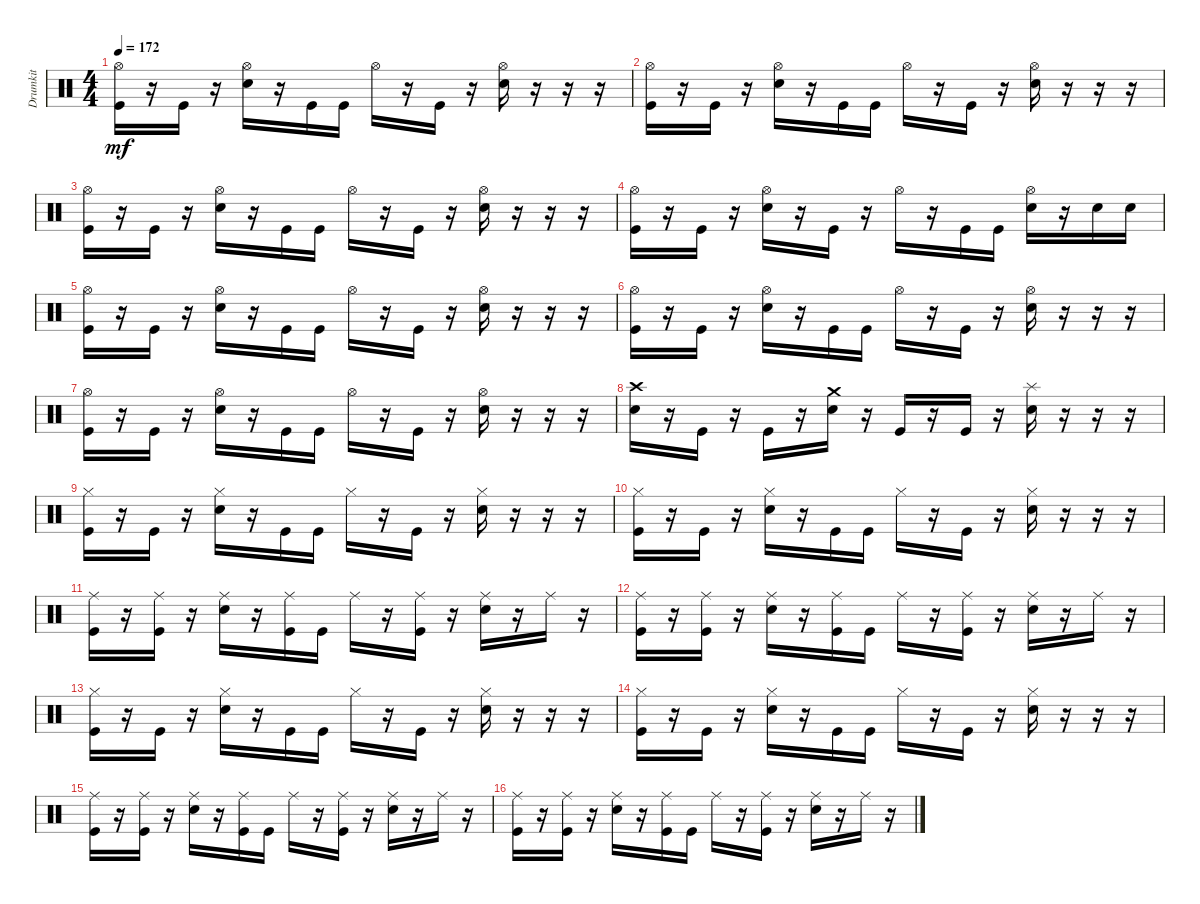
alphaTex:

\track ("Drumkit" "Drumkit") {instrument percussion}
\staff {score}
\articulation defaults
\ts (4 4)
\tempo 172
\clef neutral
\ks c
("Hi-Hat (open)" "Kick (hit)").16{dy mf} r.16 "Kick (hit)".16 r.16 ("Hi-Hat (open)" "Snare (hit) 2").16 r.16 "Kick (hit)".16 "Kick (hit)".16 "Hi-Hat (open)".16 r.16 "Kick (hit)".16 r.16 ("Hi-Hat (open)" "Snare (hit) 2").16 r.16 r.16 r.16 |
("Hi-Hat (open)" "Kick (hit)").16 r.16 "Kick (hit)".16 r.16 ("Hi-Hat (open)" "Snare (hit) 2").16 r.16 "Kick (hit)".16 "Kick (hit)".16 "Hi-Hat (open)".16 r.16 "Kick (hit)".16 r.16 ("Hi-Hat (open)" "Snare (hit) 2").16 r.16 r.16 r.16 |
("Hi-Hat (open)" "Kick (hit)").16 r.16 "Kick (hit)".16 r.16 ("Hi-Hat (open)" "Snare (hit) 2").16 r.16 "Kick (hit)".16 "Kick (hit)".16 "Hi-Hat (open)".16 r.16 "Kick (hit)".16 r.16 ("Hi-Hat (open)" "Snare (hit) 2").16 r.16 r.16 r.16 |
("Hi-Hat (open)" "Kick (hit)").16 r.16 "Kick (hit)".16 r.16 ("Hi-Hat (open)" "Snare (hit) 2").16 r.16 "Kick (hit)".16 r.16 "Hi-Hat (open)".16 r.16 "Kick (hit)".16 "Kick (hit)".16 ("Hi-Hat (open)" "Snare (hit) 2").16 r.16 "Snare (hit) 2".16 "Snare (hit) 2".16 |
("Hi-Hat (open)" "Kick (hit)").16 r.16 "Kick (hit)".16 r.16 ("Hi-Hat (open)" "Snare (hit) 2").16 r.16 "Kick (hit)".16 "Kick (hit)".16 "Hi-Hat (open)".16 r.16 "Kick (hit)".16 r.16 ("Hi-Hat (open)" "Snare (hit) 2").16 r.16 r.16 r.16 |
("Hi-Hat (open)" "Kick (hit)").16 r.16 "Kick (hit)".16 r.16 ("Hi-Hat (open)" "Snare (hit) 2").16 r.16 "Kick (hit)".16 "Kick (hit)".16 "Hi-Hat (open)".16 r.16 "Kick (hit)".16 r.16 ("Hi-Hat (open)" "Snare (hit) 2").16 r.16 r.16 r.16 |
("Hi-Hat (open)" "Kick (hit)").16 r.16 "Kick (hit)".16 r.16 ("Hi-Hat (open)" "Snare (hit) 2").16 r.16 "Kick (hit)".16 "Kick (hit)".16 "Hi-Hat (open)".16 r.16 "Kick (hit)".16 r.16 ("Hi-Hat (open)" "Snare (hit) 2").16 r.16 r.16 r.16 |
("Crash high (hit)" "Snare (hit) 2").16 r.16 "Kick (hit)".16 r.16 "Kick (hit)".16 r.16 ("Crash medium (hit)" "Snare (hit) 2").16 r.16 "Kick (hit)".16 r.16 "Kick (hit)".16 r.16 ("Snare (hit) 2" "Splash (hit)").16 r.16 r.16 r.16 |
("Hi-Hat (closed)" "Kick (hit)").16 r.16 "Kick (hit)".16 r.16 ("Hi-Hat (closed)" "Snare (hit) 2").16 r.16 "Kick (hit)".16 "Kick (hit)".16 "Hi-Hat (closed)".16 r.16 "Kick (hit)".16 r.16 ("Hi-Hat (closed)" "Snare (hit) 2").16 r.16 r.16 r.16 |
("Hi-Hat (closed)" "Kick (hit)").16 r.16 "Kick (hit)".16 r.16 ("Hi-Hat (closed)" "Snare (hit) 2").16 r.16 "Kick (hit)".16 "Kick (hit)".16 "Hi-Hat (closed)".16 r.16 "Kick (hit)".16 r.16 ("Hi-Hat (closed)" "Snare (hit) 2").16 r.16 r.16 r.16 |
("Kick (hit)" "Ride (middle)").16 r.16 ("Kick (hit)" "Ride (middle)").16 r.16 ("Snare (hit) 2" "Ride (middle)").16 r.16 ("Kick (hit)" "Ride (middle)").16 "Kick (hit)".16 "Ride (middle)".16 r.16 ("Kick (hit)" "Ride (middle)").16 r.16 ("Snare (hit) 2" "Ride (middle)").16 r.16 "Ride (middle)".16 r.16 |
("Kick (hit)" "Ride (middle)").16 r.16 ("Kick (hit)" "Ride (middle)").16 r.16 ("Snare (hit) 2" "Ride (middle)").16 r.16 ("Kick (hit)" "Ride (middle)").16 "Kick (hit)".16 "Ride (middle)".16 r.16 ("Kick (hit)" "Ride (middle)").16 r.16 ("Snare (hit) 2" "Ride (middle)").16 r.16 "Ride (middle)".16 r.16 |
("Hi-Hat (closed)" "Kick (hit)").16 r.16 "Kick (hit)".16 r.16 ("Hi-Hat (closed)" "Snare (hit) 2").16 r.16 "Kick (hit)".16 "Kick (hit)".16 "Hi-Hat (closed)".16 r.16 "Kick (hit)".16 r.16 ("Hi-Hat (closed)" "Snare (hit) 2").16 r.16 r.16 r.16 |
("Hi-Hat (closed)" "Kick (hit)").16 r.16 "Kick (hit)".16 r.16 ("Hi-Hat (closed)" "Snare (hit) 2").16 r.16 "Kick (hit)".16 "Kick (hit)".16 "Hi-Hat (closed)".16 r.16 "Kick (hit)".16 r.16 ("Hi-Hat (closed)" "Snare (hit) 2").16 r.16 r.16 r.16 |
("Kick (hit)" "Ride (middle)").16 r.16 ("Kick (hit)" "Ride (middle)").16 r.16 ("Snare (hit) 2" "Ride (middle)").16 r.16 ("Kick (hit)" "Ride (middle)").16 "Kick (hit)".16 "Ride (middle)".16 r.16 ("Kick (hit)" "Ride (middle)").16 r.16 ("Snare (hit) 2" "Ride (middle)").16 r.16 "Ride (middle)".16 r.16 |
("Kick (hit)" "Ride (middle)").16 r.16 ("Kick (hit)" "Ride (middle)").16 r.16 ("Snare (hit) 2" "Ride (middle)").16 r.16 ("Kick (hit)" "Ride (middle)").16 "Kick (hit)".16 "Ride (middle)".16 r.16 ("Kick (hit)" "Ride (middle)").16 r.16 ("Snare (hit) 2" "Ride (middle)").16 r.16 "Ride (middle)".16 r.16
